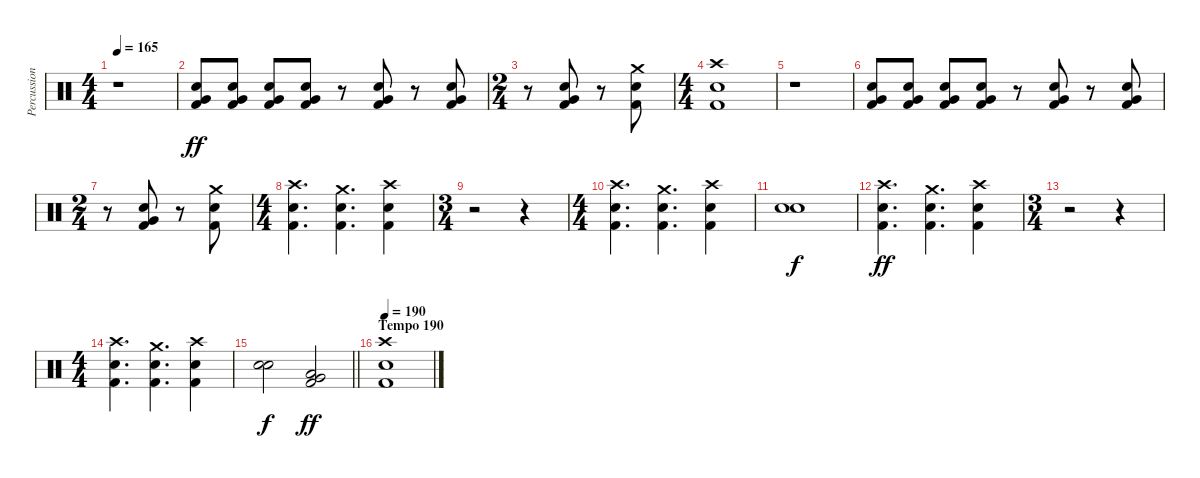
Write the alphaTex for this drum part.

\track ("Percussion" "Percussion") {instrument percussion}
\staff {score}
\articulation defaults
\ts (4 4)
\tempo 165
\clef neutral
\ks c
r.1{dy ff} |
("Very Low Tom (hit)" "Snare (hit) 2" "Kick (hit) 2").8 ("Very Low Tom (hit)" "Snare (hit) 2" "Kick (hit) 2").8 ("Very Low Tom (hit)" "Snare (hit) 2" "Kick (hit) 2").8 ("Very Low Tom (hit)" "Snare (hit) 2" "Kick (hit) 2").8 r.8 ("Very Low Tom (hit)" "Snare (hit) 2" "Kick (hit) 2").8 r.8 ("Very Low Tom (hit)" "Snare (hit) 2" "Kick (hit) 2").8 |
\ts (2 4)
r.8 ("Very Low Tom (hit)" "Snare (hit) 2" "Kick (hit) 2").8 r.8 ("Crash medium (hit)" "Snare (hit) 2" "Kick (hit) 2").8 |
\ts (4 4)
("Crash high (hit)" "Snare (hit) 2" "Kick (hit) 2").1 |
r.1 |
("Very Low Tom (hit)" "Snare (hit) 2" "Kick (hit) 2").8 ("Very Low Tom (hit)" "Snare (hit) 2" "Kick (hit) 2").8 ("Very Low Tom (hit)" "Snare (hit) 2" "Kick (hit) 2").8 ("Very Low Tom (hit)" "Snare (hit) 2" "Kick (hit) 2").8 r.8 ("Very Low Tom (hit)" "Snare (hit) 2" "Kick (hit) 2").8 r.8 ("Very Low Tom (hit)" "Snare (hit) 2" "Kick (hit) 2").8 |
\ts (2 4)
r.8 ("Very Low Tom (hit)" "Snare (hit) 2" "Kick (hit) 2").8 r.8 ("Crash medium (hit)" "Snare (hit) 2" "Kick (hit) 2").8 |
\ts (4 4)
("Crash high (hit)" "Snare (hit) 2" "Kick (hit) 2").4{d} ("Crash medium (hit)" "Snare (hit) 2" "Kick (hit) 2").4{d} ("Crash high (hit)" "Snare (hit) 2" "Kick (hit) 2").4 |
\ts (3 4)
r.2 r.4 |
\ts (4 4)
("Crash high (hit)" "Snare (hit) 2" "Kick (hit) 2").4{d} ("Crash medium (hit)" "Snare (hit) 2" "Kick (hit) 2").4{d} ("Crash high (hit)" "Snare (hit) 2" "Kick (hit) 2").4 |
("Electric Snare (hit)" "Snare (hit) 2").1{dy f} |
("Crash high (hit)" "Snare (hit) 2" "Kick (hit) 2").4{d dy ff} ("Crash medium (hit)" "Snare (hit) 2" "Kick (hit) 2").4{d} ("Crash high (hit)" "Snare (hit) 2" "Kick (hit) 2").4 |
\ts (3 4)
r.2 r.4 |
\ts (4 4)
("Crash high (hit)" "Snare (hit) 2" "Kick (hit) 2").4{d} ("Crash medium (hit)" "Snare (hit) 2" "Kick (hit) 2").4{d} ("Crash high (hit)" "Snare (hit) 2" "Kick (hit) 2").4 |
\barLineRight lightlight
("Electric Snare (hit)" "Snare (hit) 2").2{dy f} ("Very Low Tom (hit)" "Low Tom (hit)" "Kick (hit) 2").2{dy ff} |
\section ("" "Tempo 190")
\tempo 190
("Crash high (hit)" "Snare (hit) 2" "Kick (hit) 2").1
